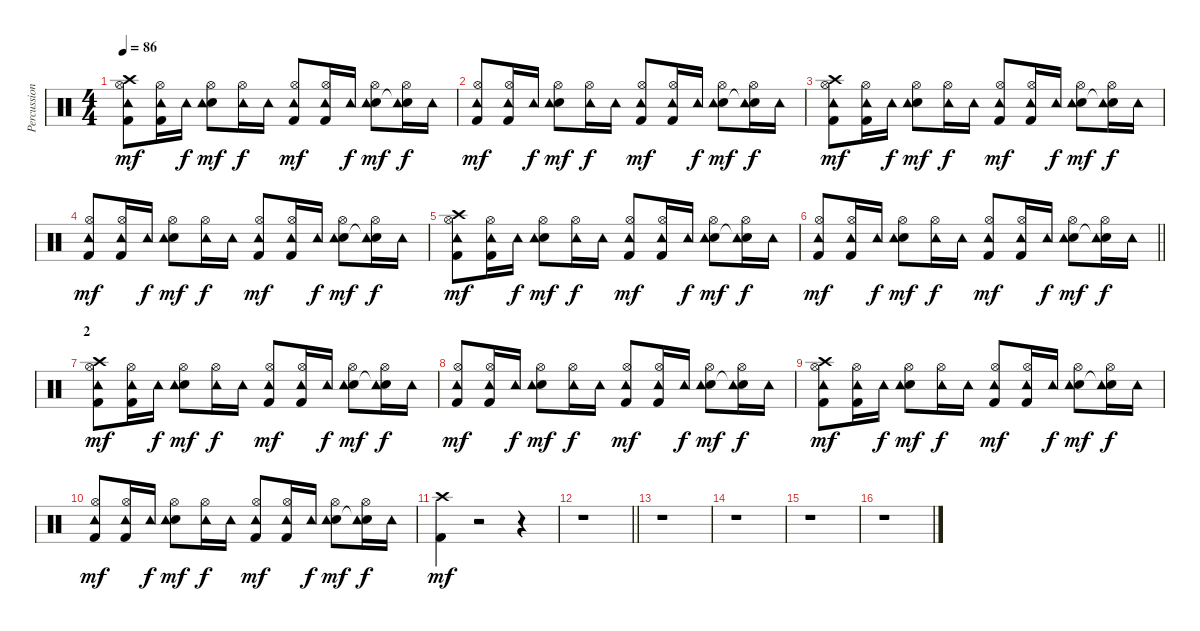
\track ("Percussion" "Percussion") {instrument percussion}
\staff {score}
\articulation defaults
\ts (4 4)
\tempo 86
\clef neutral
\ks c
("Kick (hit) 2" "Hi-Hat (open)" "Tambourine (hit)" "Crash high (hit)").8{dy mf} ("Kick (hit) 2" "Hi-Hat (open)" "Tambourine (hit)").16 "Tambourine (hit)".16{dy f} ("Snare (hit) 2" "Hi-Hat (open)" "Tambourine (hit)").8{dy mf} ("Hi-Hat (open)" "Tambourine (hit)").16{dy f} "Tambourine (hit)".16 ("Kick (hit) 2" "Hi-Hat (open)" "Tambourine (hit)").8{dy mf} ("Kick (hit) 2" "Hi-Hat (open)" "Tambourine (hit)").16 "Tambourine (hit)".16{dy f} ("Snare (hit) 2" "Hi-Hat (open)" "Tambourine (hit)").8{dy mf} ("Snare (hit)"{t} "Hi-Hat (open)" "Tambourine (hit)").16{dy f} "Tambourine (hit)".16 |
("Kick (hit) 2" "Hi-Hat (open)" "Tambourine (hit)").8{dy mf} ("Kick (hit) 2" "Hi-Hat (open)" "Tambourine (hit)").16 "Tambourine (hit)".16{dy f} ("Snare (hit) 2" "Hi-Hat (open)" "Tambourine (hit)").8{dy mf} ("Hi-Hat (open)" "Tambourine (hit)").16{dy f} "Tambourine (hit)".16 ("Kick (hit) 2" "Hi-Hat (open)" "Tambourine (hit)").8{dy mf} ("Kick (hit) 2" "Hi-Hat (open)" "Tambourine (hit)").16 "Tambourine (hit)".16{dy f} ("Snare (hit) 2" "Hi-Hat (open)" "Tambourine (hit)").8{dy mf} ("Snare (hit)"{t} "Hi-Hat (open)" "Tambourine (hit)").16{dy f} "Tambourine (hit)".16 |
("Kick (hit) 2" "Hi-Hat (open)" "Tambourine (hit)" "Crash high (hit)").8{dy mf} ("Kick (hit) 2" "Hi-Hat (open)" "Tambourine (hit)").16 "Tambourine (hit)".16{dy f} ("Snare (hit) 2" "Hi-Hat (open)" "Tambourine (hit)").8{dy mf} ("Hi-Hat (open)" "Tambourine (hit)").16{dy f} "Tambourine (hit)".16 ("Kick (hit) 2" "Hi-Hat (open)" "Tambourine (hit)").8{dy mf} ("Kick (hit) 2" "Hi-Hat (open)" "Tambourine (hit)").16 "Tambourine (hit)".16{dy f} ("Snare (hit) 2" "Hi-Hat (open)" "Tambourine (hit)").8{dy mf} ("Snare (hit)"{t} "Hi-Hat (open)" "Tambourine (hit)").16{dy f} "Tambourine (hit)".16 |
("Kick (hit) 2" "Hi-Hat (open)" "Tambourine (hit)").8{dy mf} ("Kick (hit) 2" "Hi-Hat (open)" "Tambourine (hit)").16 "Tambourine (hit)".16{dy f} ("Snare (hit) 2" "Hi-Hat (open)" "Tambourine (hit)").8{dy mf} ("Hi-Hat (open)" "Tambourine (hit)").16{dy f} "Tambourine (hit)".16 ("Kick (hit) 2" "Hi-Hat (open)" "Tambourine (hit)").8{dy mf} ("Kick (hit) 2" "Hi-Hat (open)" "Tambourine (hit)").16 "Tambourine (hit)".16{dy f} ("Snare (hit) 2" "Hi-Hat (open)" "Tambourine (hit)").8{dy mf} ("Snare (hit)"{t} "Hi-Hat (open)" "Tambourine (hit)").16{dy f} "Tambourine (hit)".16 |
("Kick (hit) 2" "Hi-Hat (open)" "Tambourine (hit)" "Crash high (hit)").8{dy mf} ("Kick (hit) 2" "Hi-Hat (open)" "Tambourine (hit)").16 "Tambourine (hit)".16{dy f} ("Snare (hit) 2" "Hi-Hat (open)" "Tambourine (hit)").8{dy mf} ("Hi-Hat (open)" "Tambourine (hit)").16{dy f} "Tambourine (hit)".16 ("Kick (hit) 2" "Hi-Hat (open)" "Tambourine (hit)").8{dy mf} ("Kick (hit) 2" "Hi-Hat (open)" "Tambourine (hit)").16 "Tambourine (hit)".16{dy f} ("Snare (hit) 2" "Hi-Hat (open)" "Tambourine (hit)").8{dy mf} ("Snare (hit)"{t} "Hi-Hat (open)" "Tambourine (hit)").16{dy f} "Tambourine (hit)".16 |
\barLineRight lightlight
("Kick (hit) 2" "Hi-Hat (open)" "Tambourine (hit)").8{dy mf} ("Kick (hit) 2" "Hi-Hat (open)" "Tambourine (hit)").16 "Tambourine (hit)".16{dy f} ("Snare (hit) 2" "Hi-Hat (open)" "Tambourine (hit)").8{dy mf} ("Hi-Hat (open)" "Tambourine (hit)").16{dy f} "Tambourine (hit)".16 ("Kick (hit) 2" "Hi-Hat (open)" "Tambourine (hit)").8{dy mf} ("Kick (hit) 2" "Hi-Hat (open)" "Tambourine (hit)").16 "Tambourine (hit)".16{dy f} ("Snare (hit) 2" "Hi-Hat (open)" "Tambourine (hit)").8{dy mf} ("Snare (hit)"{t} "Hi-Hat (open)" "Tambourine (hit)").16{dy f} "Tambourine (hit)".16 |
\section ("" "2")
("Kick (hit) 2" "Hi-Hat (open)" "Tambourine (hit)" "Crash high (hit)").8{dy mf} ("Kick (hit) 2" "Hi-Hat (open)" "Tambourine (hit)").16 "Tambourine (hit)".16{dy f} ("Snare (hit) 2" "Hi-Hat (open)" "Tambourine (hit)").8{dy mf} ("Hi-Hat (open)" "Tambourine (hit)").16{dy f} "Tambourine (hit)".16 ("Kick (hit) 2" "Hi-Hat (open)" "Tambourine (hit)").8{dy mf} ("Kick (hit) 2" "Hi-Hat (open)" "Tambourine (hit)").16 "Tambourine (hit)".16{dy f} ("Snare (hit) 2" "Hi-Hat (open)" "Tambourine (hit)").8{dy mf} ("Snare (hit)"{t} "Hi-Hat (open)" "Tambourine (hit)").16{dy f} "Tambourine (hit)".16 |
("Kick (hit) 2" "Hi-Hat (open)" "Tambourine (hit)").8{dy mf} ("Kick (hit) 2" "Hi-Hat (open)" "Tambourine (hit)").16 "Tambourine (hit)".16{dy f} ("Snare (hit) 2" "Hi-Hat (open)" "Tambourine (hit)").8{dy mf} ("Hi-Hat (open)" "Tambourine (hit)").16{dy f} "Tambourine (hit)".16 ("Kick (hit) 2" "Hi-Hat (open)" "Tambourine (hit)").8{dy mf} ("Kick (hit) 2" "Hi-Hat (open)" "Tambourine (hit)").16 "Tambourine (hit)".16{dy f} ("Snare (hit) 2" "Hi-Hat (open)" "Tambourine (hit)").8{dy mf} ("Snare (hit)"{t} "Hi-Hat (open)" "Tambourine (hit)").16{dy f} "Tambourine (hit)".16 |
("Kick (hit) 2" "Hi-Hat (open)" "Tambourine (hit)" "Crash high (hit)").8{dy mf} ("Kick (hit) 2" "Hi-Hat (open)" "Tambourine (hit)").16 "Tambourine (hit)".16{dy f} ("Snare (hit) 2" "Hi-Hat (open)" "Tambourine (hit)").8{dy mf} ("Hi-Hat (open)" "Tambourine (hit)").16{dy f} "Tambourine (hit)".16 ("Kick (hit) 2" "Hi-Hat (open)" "Tambourine (hit)").8{dy mf} ("Kick (hit) 2" "Hi-Hat (open)" "Tambourine (hit)").16 "Tambourine (hit)".16{dy f} ("Snare (hit) 2" "Hi-Hat (open)" "Tambourine (hit)").8{dy mf} ("Snare (hit)"{t} "Hi-Hat (open)" "Tambourine (hit)").16{dy f} "Tambourine (hit)".16 |
("Kick (hit) 2" "Hi-Hat (open)" "Tambourine (hit)").8{dy mf} ("Kick (hit) 2" "Hi-Hat (open)" "Tambourine (hit)").16 "Tambourine (hit)".16{dy f} ("Snare (hit) 2" "Hi-Hat (open)" "Tambourine (hit)").8{dy mf} ("Hi-Hat (open)" "Tambourine (hit)").16{dy f} "Tambourine (hit)".16 ("Kick (hit) 2" "Hi-Hat (open)" "Tambourine (hit)").8{dy mf} ("Kick (hit) 2" "Hi-Hat (open)" "Tambourine (hit)").16 "Tambourine (hit)".16{dy f} ("Snare (hit) 2" "Hi-Hat (open)" "Tambourine (hit)").8{dy mf} ("Snare (hit)"{t} "Hi-Hat (open)" "Tambourine (hit)").16{dy f} "Tambourine (hit)".16 |
("Kick (hit) 2" "Crash high (hit)").4{dy mf} r.2 r.4 |
\barLineRight lightlight
r.1 |
r.1 |
r.1 |
r.1 |
r.1
